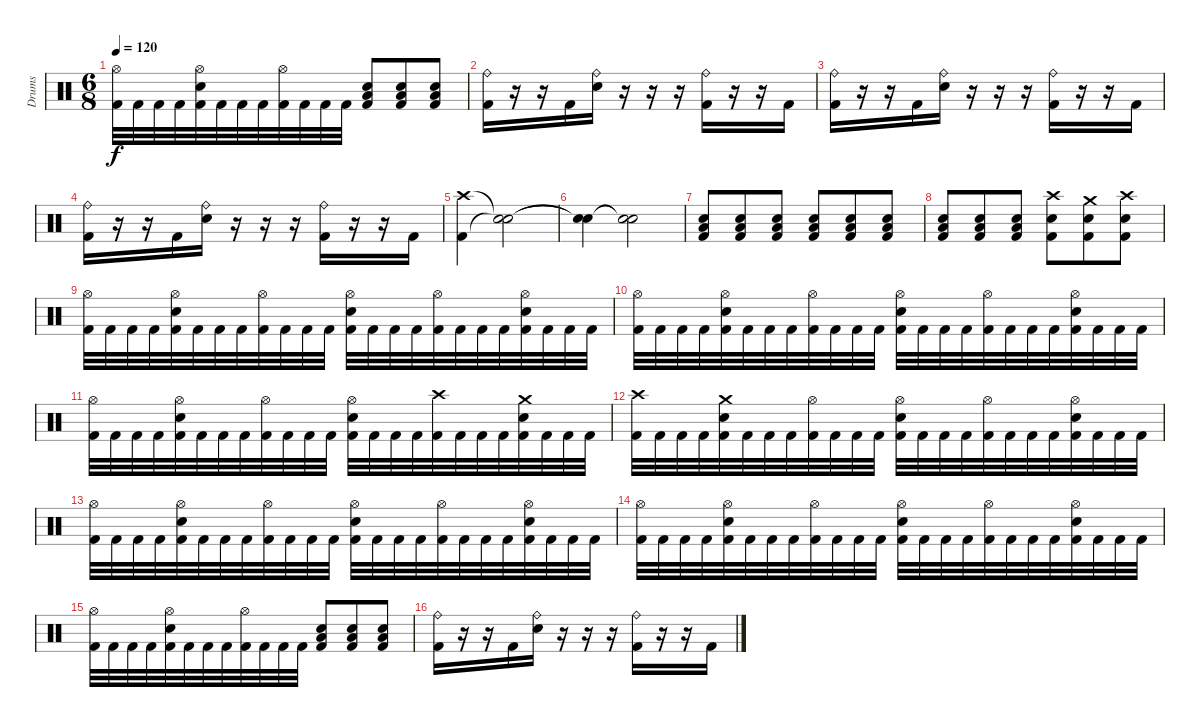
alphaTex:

\track ("Drums" "Drums") {instrument percussion}
\staff {score}
\articulation defaults
\ts (6 8)
\tempo 120
\clef neutral
\ks c
("Hi-Hat (open)" "Kick (hit) 2").32{dy f} "Kick (hit) 2".32 "Kick (hit) 2".32 "Kick (hit) 2".32 ("Hi-Hat (open)" "Electric Snare (hit)" "Kick (hit) 2").32 "Kick (hit) 2".32 "Kick (hit) 2".32 "Kick (hit) 2".32 ("Hi-Hat (open)" "Kick (hit) 2").32 "Kick (hit) 2".32 "Kick (hit) 2".32 "Kick (hit) 2".32 ("Electric Snare (hit)" "Low Floor Tom (hit)" "Kick (hit) 2").8 ("Electric Snare (hit)" "Low Floor Tom (hit)" "Kick (hit) 2").8 ("Electric Snare (hit)" "Low Floor Tom (hit)" "Kick (hit) 2").8 |
("Kick (hit) 2" "Ride (bell)").16 r.16 r.16 "Kick (hit) 2".16 ("Electric Snare (hit)" "Ride (bell)").16 r.16 r.16 r.16 ("Kick (hit) 2" "Ride (bell)").16 r.16 r.16 "Kick (hit) 2".16 |
("Kick (hit) 2" "Ride (bell)").16 r.16 r.16 "Kick (hit) 2".16 ("Electric Snare (hit)" "Ride (bell)").16 r.16 r.16 r.16 ("Kick (hit) 2" "Ride (bell)").16 r.16 r.16 "Kick (hit) 2".16 |
("Kick (hit) 2" "Ride (bell)").16 r.16 r.16 "Kick (hit) 2".16 ("Electric Snare (hit)" "Ride (bell)").16 r.16 r.16 r.16 ("Kick (hit) 2" "Ride (bell)").16 r.16 r.16 "Kick (hit) 2".16 |
("Crash high (hit)" "Kick (hit) 2").4 ("Snare (hit)"{t} "Snare (hit)"{t}).2 |
("Snare (hit)"{t} "Snare (hit)"{t}).4 ("Snare (hit)"{t} "Snare (hit)"{t}).2 |
("Low Floor Tom (hit)" "Electric Snare (hit)" "Kick (hit) 2").8{volume 2} ("Low Floor Tom (hit)" "Electric Snare (hit)" "Kick (hit) 2").8{volume 4} ("Low Floor Tom (hit)" "Electric Snare (hit)" "Kick (hit) 2").8{volume 6} ("Low Floor Tom (hit)" "Electric Snare (hit)" "Kick (hit) 2").8{volume 8} ("Low Floor Tom (hit)" "Electric Snare (hit)" "Kick (hit) 2").8{volume 10} ("Low Floor Tom (hit)" "Electric Snare (hit)" "Kick (hit) 2").8{volume 12} |
("Low Floor Tom (hit)" "Electric Snare (hit)" "Kick (hit) 2").8{volume 14} ("Low Floor Tom (hit)" "Electric Snare (hit)" "Kick (hit) 2").8{volume 16} ("Low Floor Tom (hit)" "Electric Snare (hit)" "Kick (hit) 2").8 ("Crash high (hit)" "Electric Snare (hit)" "Kick (hit) 2").8 ("Crash medium (hit)" "Electric Snare (hit)" "Kick (hit) 2").8 ("Crash high (hit)" "Electric Snare (hit)" "Kick (hit) 2").8 |
("Hi-Hat (open)" "Kick (hit) 2").32 "Kick (hit) 2".32 "Kick (hit) 2".32 "Kick (hit) 2".32 ("Hi-Hat (open)" "Electric Snare (hit)" "Kick (hit) 2").32 "Kick (hit) 2".32 "Kick (hit) 2".32 "Kick (hit) 2".32 ("Hi-Hat (open)" "Kick (hit) 2").32 "Kick (hit) 2".32 "Kick (hit) 2".32 "Kick (hit) 2".32 ("Hi-Hat (open)" "Electric Snare (hit)" "Kick (hit) 2").32 "Kick (hit) 2".32 "Kick (hit) 2".32 "Kick (hit) 2".32 ("Hi-Hat (open)" "Kick (hit) 2").32 "Kick (hit) 2".32 "Kick (hit) 2".32 "Kick (hit) 2".32 ("Hi-Hat (open)" "Electric Snare (hit)" "Kick (hit) 2").32 "Kick (hit) 2".32 "Kick (hit) 2".32 "Kick (hit) 2".32 |
("Hi-Hat (open)" "Kick (hit) 2").32 "Kick (hit) 2".32 "Kick (hit) 2".32 "Kick (hit) 2".32 ("Hi-Hat (open)" "Electric Snare (hit)" "Kick (hit) 2").32 "Kick (hit) 2".32 "Kick (hit) 2".32 "Kick (hit) 2".32 ("Hi-Hat (open)" "Kick (hit) 2").32 "Kick (hit) 2".32 "Kick (hit) 2".32 "Kick (hit) 2".32 ("Hi-Hat (open)" "Electric Snare (hit)" "Kick (hit) 2").32 "Kick (hit) 2".32 "Kick (hit) 2".32 "Kick (hit) 2".32 ("Hi-Hat (open)" "Kick (hit) 2").32 "Kick (hit) 2".32 "Kick (hit) 2".32 "Kick (hit) 2".32 ("Hi-Hat (open)" "Electric Snare (hit)" "Kick (hit) 2").32 "Kick (hit) 2".32 "Kick (hit) 2".32 "Kick (hit) 2".32 |
("Hi-Hat (open)" "Kick (hit) 2").32 "Kick (hit) 2".32 "Kick (hit) 2".32 "Kick (hit) 2".32 ("Hi-Hat (open)" "Electric Snare (hit)" "Kick (hit) 2").32 "Kick (hit) 2".32 "Kick (hit) 2".32 "Kick (hit) 2".32 ("Hi-Hat (open)" "Kick (hit) 2").32 "Kick (hit) 2".32 "Kick (hit) 2".32 "Kick (hit) 2".32 ("Hi-Hat (open)" "Electric Snare (hit)" "Kick (hit) 2").32 "Kick (hit) 2".32 "Kick (hit) 2".32 "Kick (hit) 2".32 ("Crash high (hit)" "Kick (hit) 2").32 "Kick (hit) 2".32 "Kick (hit) 2".32 "Kick (hit) 2".32 ("Crash medium (hit)" "Electric Snare (hit)" "Kick (hit) 2").32 "Kick (hit) 2".32 "Kick (hit) 2".32 "Kick (hit) 2".32 |
("Crash high (hit)" "Kick (hit) 2").32 "Kick (hit) 2".32 "Kick (hit) 2".32 "Kick (hit) 2".32 ("Crash medium (hit)" "Electric Snare (hit)" "Kick (hit) 2").32 "Kick (hit) 2".32 "Kick (hit) 2".32 "Kick (hit) 2".32 ("Hi-Hat (open)" "Kick (hit) 2").32 "Kick (hit) 2".32 "Kick (hit) 2".32 "Kick (hit) 2".32 ("Hi-Hat (open)" "Electric Snare (hit)" "Kick (hit) 2").32 "Kick (hit) 2".32 "Kick (hit) 2".32 "Kick (hit) 2".32 ("Hi-Hat (open)" "Kick (hit) 2").32 "Kick (hit) 2".32 "Kick (hit) 2".32 "Kick (hit) 2".32 ("Hi-Hat (open)" "Electric Snare (hit)" "Kick (hit) 2").32 "Kick (hit) 2".32 "Kick (hit) 2".32 "Kick (hit) 2".32 |
("Hi-Hat (open)" "Kick (hit) 2").32 "Kick (hit) 2".32 "Kick (hit) 2".32 "Kick (hit) 2".32 ("Hi-Hat (open)" "Electric Snare (hit)" "Kick (hit) 2").32 "Kick (hit) 2".32 "Kick (hit) 2".32 "Kick (hit) 2".32 ("Hi-Hat (open)" "Kick (hit) 2").32 "Kick (hit) 2".32 "Kick (hit) 2".32 "Kick (hit) 2".32 ("Hi-Hat (open)" "Electric Snare (hit)" "Kick (hit) 2").32 "Kick (hit) 2".32 "Kick (hit) 2".32 "Kick (hit) 2".32 ("Hi-Hat (open)" "Kick (hit) 2").32 "Kick (hit) 2".32 "Kick (hit) 2".32 "Kick (hit) 2".32 ("Hi-Hat (open)" "Electric Snare (hit)" "Kick (hit) 2").32 "Kick (hit) 2".32 "Kick (hit) 2".32 "Kick (hit) 2".32 |
("Hi-Hat (open)" "Kick (hit) 2").32 "Kick (hit) 2".32 "Kick (hit) 2".32 "Kick (hit) 2".32 ("Hi-Hat (open)" "Electric Snare (hit)" "Kick (hit) 2").32 "Kick (hit) 2".32 "Kick (hit) 2".32 "Kick (hit) 2".32 ("Hi-Hat (open)" "Kick (hit) 2").32 "Kick (hit) 2".32 "Kick (hit) 2".32 "Kick (hit) 2".32 ("Hi-Hat (open)" "Electric Snare (hit)" "Kick (hit) 2").32 "Kick (hit) 2".32 "Kick (hit) 2".32 "Kick (hit) 2".32 ("Hi-Hat (open)" "Kick (hit) 2").32 "Kick (hit) 2".32 "Kick (hit) 2".32 "Kick (hit) 2".32 ("Hi-Hat (open)" "Electric Snare (hit)" "Kick (hit) 2").32 "Kick (hit) 2".32 "Kick (hit) 2".32 "Kick (hit) 2".32 |
("Hi-Hat (open)" "Kick (hit) 2").32 "Kick (hit) 2".32 "Kick (hit) 2".32 "Kick (hit) 2".32 ("Hi-Hat (open)" "Electric Snare (hit)" "Kick (hit) 2").32 "Kick (hit) 2".32 "Kick (hit) 2".32 "Kick (hit) 2".32 ("Hi-Hat (open)" "Kick (hit) 2").32 "Kick (hit) 2".32 "Kick (hit) 2".32 "Kick (hit) 2".32 ("Electric Snare (hit)" "Low Floor Tom (hit)" "Kick (hit) 2").8 ("Electric Snare (hit)" "Low Floor Tom (hit)" "Kick (hit) 2").8 ("Electric Snare (hit)" "Low Floor Tom (hit)" "Kick (hit) 2").8 |
("Kick (hit) 2" "Ride (bell)").16 r.16 r.16 "Kick (hit) 2".16 ("Electric Snare (hit)" "Ride (bell)").16 r.16 r.16 r.16 ("Kick (hit) 2" "Ride (bell)").16 r.16 r.16 "Kick (hit) 2".16
